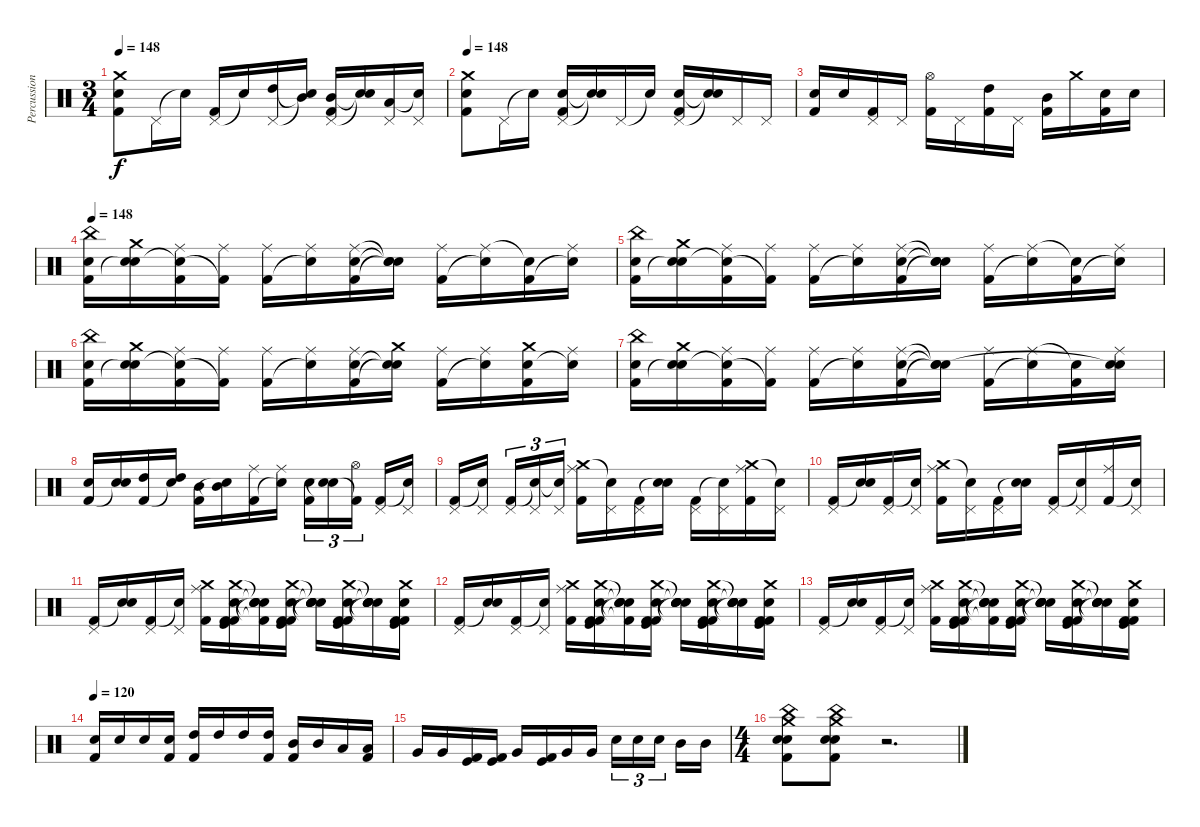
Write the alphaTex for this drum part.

\track ("Percussion" "Percussion") {instrument percussion}
\staff {score}
\articulation defaults
\ts (3 4)
\tempo 148
\clef neutral
\ks c
("Crash medium (hit)" "Snare (hit) 2" "Kick (hit) 2").8{dy f} "Pedal Hi-Hat (hit)".16 "Snare (hit)"{t}.16 ("Pedal Hi-Hat (hit)" "Kick (hit) 2").16 "Snare (hit)"{t}.16 ("Pedal Hi-Hat (hit)" "High Tom (hit)").16 ("Snare (hit)"{t} "Mid Tom (hit)"{t}).16 ("Pedal Hi-Hat (hit)" "Mid Tom (hit)" "Kick (hit) 2").16 ("Snare (hit)"{t} "Snare (hit)"{t}).16 ("Pedal Hi-Hat (hit)" "Low Tom (hit)").16 ("Pedal Hi-Hat (hit)" "Snare (hit)"{t}).16 |
\tempo 148
("Crash medium (hit)" "Snare (hit) 2" "Kick (hit) 2").8{volume 16} "Pedal Hi-Hat (hit)".16 "Snare (hit)"{t}.16 ("Pedal Hi-Hat (hit)" "Snare (hit) 2" "Kick (hit) 2").16 ("Snare (hit)"{t} "Snare (hit)"{t}).16 "Pedal Hi-Hat (hit)".16 "Snare (hit)"{t}.16 ("Pedal Hi-Hat (hit)" "Snare (hit) 2" "Kick (hit) 2").16 ("Snare (hit)"{t} "Snare (hit)"{t}).16 "Pedal Hi-Hat (hit)".16 "Pedal Hi-Hat (hit)".16 |
("Snare (hit) 2" "Kick (hit) 2").16 "Snare (hit) 2".16 ("Pedal Hi-Hat (hit)" "Kick (hit) 2").16 "Pedal Hi-Hat (hit)".16 ("Hi-Hat (open)" "Kick (hit) 2").16 "Pedal Hi-Hat (hit)".16 ("High Tom (hit)" "Kick (hit) 2").16 "Pedal Hi-Hat (hit)".16 ("Mid Tom (hit)" "Kick (hit) 2").16 "Crash medium (hit)".16 ("Snare (hit) 2" "Kick (hit) 2").16 "Snare (hit) 2".16 |
\tempo 148
("China (hit)" "Snare (hit) 2" "Kick (hit) 2").16 ("Crash medium (hit)" "Snare (hit) 2" "Snare (hit)"{t}).16 ("Ride (middle)" "Snare (hit)"{t} "Kick (hit) 2").16 ("Ride (middle)" "Kick (hit) 2"{t}).16 ("Ride (middle)" "Kick (hit) 2").16 ("Ride (middle)" "Snare (hit)"{t}).16 ("Ride (middle)" "Snare (hit) 2" "Kick (hit) 2").16 ("Snare (hit)"{t} "Snare (hit)"{t} "Snare (hit)"{t}).16 ("Ride (middle)" "Kick (hit) 2").16 ("Ride (middle)" "Snare (hit)"{t}).16 ("Snare (hit)"{t} "Kick (hit) 2").16 ("Ride (middle)" "Snare (hit)"{t}).16 |
("China (hit)" "Snare (hit) 2" "Kick (hit) 2").16 ("Crash medium (hit)" "Snare (hit) 2" "Snare (hit)"{t}).16 ("Ride (middle)" "Snare (hit)"{t} "Kick (hit) 2").16 ("Ride (middle)" "Kick (hit) 2"{t}).16 ("Ride (middle)" "Kick (hit) 2").16 ("Ride (middle)" "Snare (hit)"{t}).16 ("Ride (middle)" "Snare (hit) 2" "Kick (hit) 2").16 ("Snare (hit)"{t} "Snare (hit)"{t} "Snare (hit)"{t}).16 ("Ride (middle)" "Kick (hit) 2").16 ("Ride (middle)" "Snare (hit)"{t}).16 ("Snare (hit)"{t} "Kick (hit) 2").16 ("Ride (middle)" "Snare (hit)"{t}).16 |
("China (hit)" "Snare (hit) 2" "Kick (hit) 2").16 ("Crash medium (hit)" "Snare (hit) 2" "Snare (hit)"{t}).16 ("Ride (middle)" "Snare (hit)"{t} "Kick (hit) 2").16 ("Ride (middle)" "Kick (hit) 2"{t}).16 ("Ride (middle)" "Kick (hit) 2").16 ("Ride (middle)" "Snare (hit)"{t}).16 ("Ride (middle)" "Snare (hit) 2" "Kick (hit) 2").16 ("Crash medium (hit)" "Snare (hit)"{t} "Snare (hit)"{t}).16 ("Ride (middle)" "Kick (hit) 2").16 ("Ride (middle)" "Snare (hit)"{t}).16 ("Crash medium (hit)" "Snare (hit) 2" "Kick (hit) 2").16 ("Ride (middle)" "Snare (hit)"{t}).16 |
("China (hit)" "Snare (hit) 2" "Kick (hit) 2").16 ("Crash medium (hit)" "Snare (hit) 2" "Snare (hit)"{t}).16 ("Ride (middle)" "Snare (hit)"{t} "Kick (hit) 2").16 ("Ride (middle)" "Kick (hit) 2"{t}).16 ("Ride (middle)" "Kick (hit) 2").16 ("Ride (middle)" "Snare (hit)"{t}).16 ("Ride (middle)" "Snare (hit) 2" "Kick (hit) 2").16 ("Snare (hit)"{t} "Snare (hit)"{t} "Snare (hit)"{t}).16 ("Ride (middle)" "Kick (hit) 2").16 ("Ride (middle)" "Snare (hit)"{t}).16 ("Snare (hit)"{t} "Kick (hit) 2").16 ("Ride (middle)" "Snare (hit) 2" "Snare (hit)"{t}).16 |
("Snare (hit) 2" "Kick (hit) 2").16 ("Snare (hit) 2" "Snare (hit)"{t}).16 ("High Tom (hit)" "Kick (hit) 2").16 ("High Tom (hit)" "Snare (hit)"{t}).16 ("Mid Tom (hit)" "Kick (hit) 2").16 ("Mid Tom (hit)" "Snare (hit)"{t}).16 ("Ride (middle)" "Kick (hit) 2").16 ("Ride (middle)" "Snare (hit)"{t}).16 ("Snare (hit) 2" "Kick (hit) 2").16{tu (3 2)} ("Snare (hit) 2" "Snare (hit)"{t}).16{tu (3 2)} ("Hi-Hat (open)" "Kick (hit) 2"{t}).16{tu (3 2)} ("Pedal Hi-Hat (hit)" "Kick (hit) 2").16 ("Pedal Hi-Hat (hit)" "Snare (hit)"{t}).16 |
("Pedal Hi-Hat (hit)" "Kick (hit) 2").16 ("Pedal Hi-Hat (hit)" "Snare (hit)"{t}).16 ("Pedal Hi-Hat (hit)" "Kick (hit) 2").16{tu (3 2)} ("Pedal Hi-Hat (hit)" "Snare (hit)"{t}).16{tu (3 2)} ("Pedal Hi-Hat (hit)" "Snare (hit)"{t}).16{tu (3 2)} ("Ride (middle)" "Crash medium (hit)" "Kick (hit) 2").16 ("Pedal Hi-Hat (hit)" "Snare (hit)"{t}).16 ("Pedal Hi-Hat (hit)" "Kick (hit) 2").16 ("Snare (hit) 2" "Snare (hit)"{t}).16 ("Pedal Hi-Hat (hit)" "Kick (hit) 2").16 ("Pedal Hi-Hat (hit)" "Snare (hit)"{t}).16 ("Ride (middle)" "Crash medium (hit)" "Kick (hit) 2").16 ("Pedal Hi-Hat (hit)" "Snare (hit)"{t}).16 |
("Pedal Hi-Hat (hit)" "Kick (hit) 2").16 ("Snare (hit) 2" "Snare (hit)"{t}).16 ("Pedal Hi-Hat (hit)" "Kick (hit) 2").16 ("Pedal Hi-Hat (hit)" "Snare (hit)"{t}).16 ("Ride (middle)" "Crash medium (hit)" "Kick (hit) 2").16 ("Pedal Hi-Hat (hit)" "Snare (hit)"{t}).16 ("Pedal Hi-Hat (hit)" "Kick (hit) 2").16 ("Snare (hit) 2" "Snare (hit)"{t}).16 ("Pedal Hi-Hat (hit)" "Kick (hit) 2").16 ("Pedal Hi-Hat (hit)" "Snare (hit)"{t}).16 ("Ride (middle)" "Kick (hit) 2").16 ("Pedal Hi-Hat (hit)" "Snare (hit)"{t}).16 |
("Pedal Hi-Hat (hit)" "Kick (hit) 2").16 ("Snare (hit) 2" "Snare (hit)"{t}).16 ("Pedal Hi-Hat (hit)" "Kick (hit) 2").16 ("Pedal Hi-Hat (hit)" "Snare (hit)"{t}).16 ("Ride (middle)" "Crash medium (hit)" "Kick (hit) 2").16 ("Crash medium (hit)" "Snare (hit) 2" "Kick (hit) 2" "Kick (hit)" "Kick (hit) 2").16 ("Snare (hit)"{t} "Snare (hit)"{t} "Snare (hit)"{t} "Snare (hit)"{t} "Kick (hit) 2"{t}).16 ("Crash medium (hit)" "Snare (hit) 2" "Kick (hit) 2" "Kick (hit)" "Kick (hit) 2").16 ("Snare (hit)"{t} "Snare (hit)"{t} "Snare (hit)"{t} "Snare (hit)"{t} "Snare (hit)"{t}).16 ("Crash medium (hit)" "Snare (hit) 2" "Kick (hit) 2" "Kick (hit)" "Kick (hit) 2").16 ("Snare (hit)"{t} "Snare (hit)"{t} "Snare (hit)"{t} "Snare (hit)"{t} "Snare (hit)"{t}).16 ("Crash medium (hit)" "Snare (hit) 2" "Kick (hit) 2" "Kick (hit)" "Kick (hit) 2").16 |
("Pedal Hi-Hat (hit)" "Kick (hit) 2").16 ("Snare (hit) 2" "Snare (hit)"{t}).16 ("Pedal Hi-Hat (hit)" "Kick (hit) 2").16 ("Pedal Hi-Hat (hit)" "Snare (hit)"{t}).16 ("Ride (middle)" "Crash medium (hit)" "Kick (hit) 2").16 ("Crash medium (hit)" "Snare (hit) 2" "Kick (hit) 2" "Kick (hit)" "Kick (hit) 2").16 ("Snare (hit)"{t} "Snare (hit)"{t} "Snare (hit)"{t} "Snare (hit)"{t} "Kick (hit) 2"{t}).16 ("Crash medium (hit)" "Snare (hit) 2" "Kick (hit) 2" "Kick (hit)" "Kick (hit) 2").16 ("Snare (hit)"{t} "Snare (hit)"{t} "Snare (hit)"{t} "Snare (hit)"{t} "Snare (hit)"{t}).16 ("Crash medium (hit)" "Snare (hit) 2" "Kick (hit) 2" "Kick (hit)" "Kick (hit) 2").16 ("Snare (hit)"{t} "Snare (hit)"{t} "Snare (hit)"{t} "Snare (hit)"{t} "Snare (hit)"{t}).16 ("Crash medium (hit)" "Snare (hit) 2" "Kick (hit) 2" "Kick (hit)" "Kick (hit) 2").16 |
("Pedal Hi-Hat (hit)" "Kick (hit) 2").16 ("Snare (hit) 2" "Snare (hit)"{t}).16 ("Pedal Hi-Hat (hit)" "Kick (hit) 2").16 ("Pedal Hi-Hat (hit)" "Snare (hit)"{t}).16 ("Ride (middle)" "Crash medium (hit)" "Kick (hit) 2").16 ("Crash medium (hit)" "Snare (hit) 2" "Kick (hit) 2" "Kick (hit)" "Kick (hit) 2").16 ("Snare (hit)"{t} "Snare (hit)"{t} "Snare (hit)"{t} "Snare (hit)"{t} "Kick (hit) 2"{t}).16 ("Crash medium (hit)" "Snare (hit) 2" "Kick (hit) 2" "Kick (hit)" "Kick (hit) 2").16 ("Snare (hit)"{t} "Snare (hit)"{t} "Snare (hit)"{t} "Snare (hit)"{t} "Snare (hit)"{t}).16 ("Crash medium (hit)" "Snare (hit) 2" "Kick (hit) 2" "Kick (hit)" "Kick (hit) 2").16 ("Snare (hit)"{t} "Snare (hit)"{t} "Snare (hit)"{t} "Snare (hit)"{t} "Snare (hit)"{t}).16 ("Crash medium (hit)" "Snare (hit) 2" "Kick (hit) 2" "Kick (hit)" "Kick (hit) 2").16 |
\tempo 120
("Snare (hit) 2" "Kick (hit) 2").16{volume 13} "Snare (hit) 2".16 "Snare (hit) 2".16 ("Snare (hit) 2" "Kick (hit) 2").16 ("High Tom (hit)" "Kick (hit) 2").16 "High Tom (hit)".16 "High Tom (hit)".16 ("High Tom (hit)" "Kick (hit) 2").16 ("Mid Tom (hit)" "Kick (hit) 2").16 "Mid Tom (hit)".16 "Low Tom (hit)".16 ("Low Tom (hit)" "Kick (hit) 2").16 |
"Very Low Tom (hit)".16 "Very Low Tom (hit)".16 ("Kick (hit)" "Kick (hit) 2").16 ("Kick (hit)" "Kick (hit) 2").16 "Very Low Tom (hit)".16 ("Kick (hit)" "Kick (hit) 2").16 "Very Low Tom (hit)".16 "Very Low Tom (hit)".16 "Snare (hit) 2".16{tu (3 2)} "Snare (hit) 2".16{tu (3 2)} "Snare (hit) 2".16{tu (3 2)} "Mid Tom (hit)".16 "Mid Tom (hit)".16 |
\ts (4 4)
("China (hit)" "Crash medium (hit)" "Snare (hit) 2" "Kick (hit) 2" "Metronome (bell)").8 ("China (hit)" "Crash medium (hit)" "Snare (hit) 2" "Kick (hit) 2" "Metronome (bell)").8 r.2{d}
